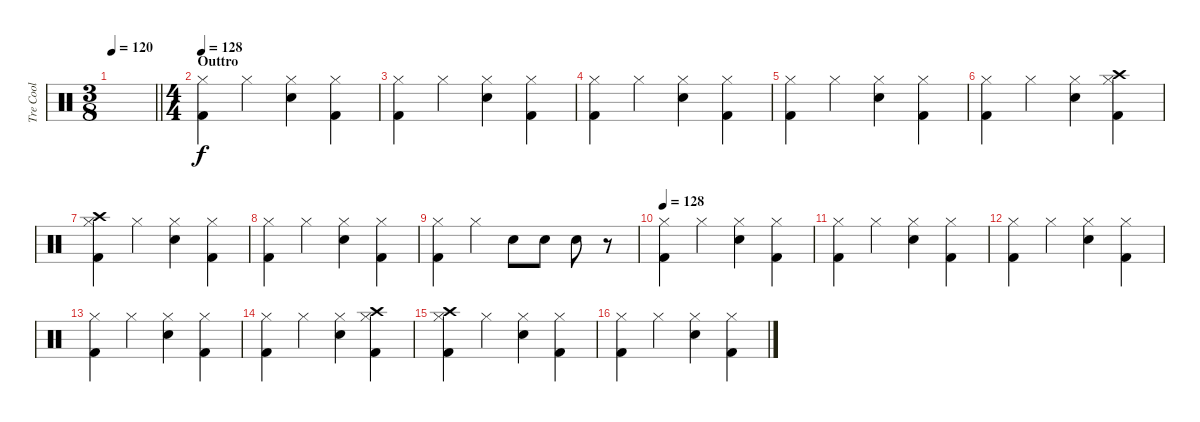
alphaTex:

\track ("Tre Cool" "Tre Cool") {instrument percussion}
\staff {score}
\articulation defaults
\ts (3 8)
\tempo 120
\clef neutral
\barLineRight lightlight
\ks c
|
\ts (4 4)
\section ("" "Outtro")
\tempo 128
("Hi-Hat (closed)" "Kick (hit) 2").4 "Hi-Hat (closed)".4 ("Hi-Hat (closed)" "Snare (hit) 2").4 ("Hi-Hat (closed)" "Kick (hit) 2").4 |
("Hi-Hat (closed)" "Kick (hit) 2").4 "Hi-Hat (closed)".4 ("Hi-Hat (closed)" "Snare (hit) 2").4 ("Hi-Hat (closed)" "Kick (hit) 2").4 |
("Hi-Hat (closed)" "Kick (hit) 2").4 "Hi-Hat (closed)".4 ("Hi-Hat (closed)" "Snare (hit) 2").4 ("Hi-Hat (closed)" "Kick (hit) 2").4 |
("Hi-Hat (closed)" "Kick (hit) 2").4 "Hi-Hat (closed)".4 ("Hi-Hat (closed)" "Snare (hit) 2").4 ("Hi-Hat (closed)" "Kick (hit) 2").4 |
("Hi-Hat (closed)" "Kick (hit) 2").4 "Hi-Hat (closed)".4 ("Hi-Hat (closed)" "Snare (hit) 2").4 ("Hi-Hat (closed)" "Kick (hit) 2" "Crash high (hit)").4 |
("Hi-Hat (closed)" "Kick (hit) 2" "Crash high (hit)").4 "Hi-Hat (closed)".4 ("Hi-Hat (closed)" "Snare (hit) 2").4 ("Hi-Hat (closed)" "Kick (hit) 2").4 |
("Hi-Hat (closed)" "Kick (hit) 2").4 "Hi-Hat (closed)".4 ("Hi-Hat (closed)" "Snare (hit) 2").4 ("Hi-Hat (closed)" "Kick (hit) 2").4 |
("Hi-Hat (closed)" "Kick (hit) 2").4 "Hi-Hat (closed)".4 "Snare (hit) 2".8 "Snare (hit) 2".8 "Snare (hit) 2".8 r.8 |
\tempo 128
("Hi-Hat (closed)" "Kick (hit) 2").4 "Hi-Hat (closed)".4 ("Hi-Hat (closed)" "Snare (hit) 2").4 ("Hi-Hat (closed)" "Kick (hit) 2").4 |
("Hi-Hat (closed)" "Kick (hit) 2").4 "Hi-Hat (closed)".4 ("Hi-Hat (closed)" "Snare (hit) 2").4 ("Hi-Hat (closed)" "Kick (hit) 2").4 |
("Hi-Hat (closed)" "Kick (hit) 2").4 "Hi-Hat (closed)".4 ("Hi-Hat (closed)" "Snare (hit) 2").4 ("Hi-Hat (closed)" "Kick (hit) 2").4 |
("Hi-Hat (closed)" "Kick (hit) 2").4 "Hi-Hat (closed)".4 ("Hi-Hat (closed)" "Snare (hit) 2").4 ("Hi-Hat (closed)" "Kick (hit) 2").4 |
("Hi-Hat (closed)" "Kick (hit) 2").4 "Hi-Hat (closed)".4 ("Hi-Hat (closed)" "Snare (hit) 2").4 ("Hi-Hat (closed)" "Kick (hit) 2" "Crash high (hit)").4 |
("Hi-Hat (closed)" "Kick (hit) 2" "Crash high (hit)").4 "Hi-Hat (closed)".4 ("Hi-Hat (closed)" "Snare (hit) 2").4 ("Hi-Hat (closed)" "Kick (hit) 2").4 |
("Hi-Hat (closed)" "Kick (hit) 2").4 "Hi-Hat (closed)".4 ("Hi-Hat (closed)" "Snare (hit) 2").4 ("Hi-Hat (closed)" "Kick (hit) 2").4
